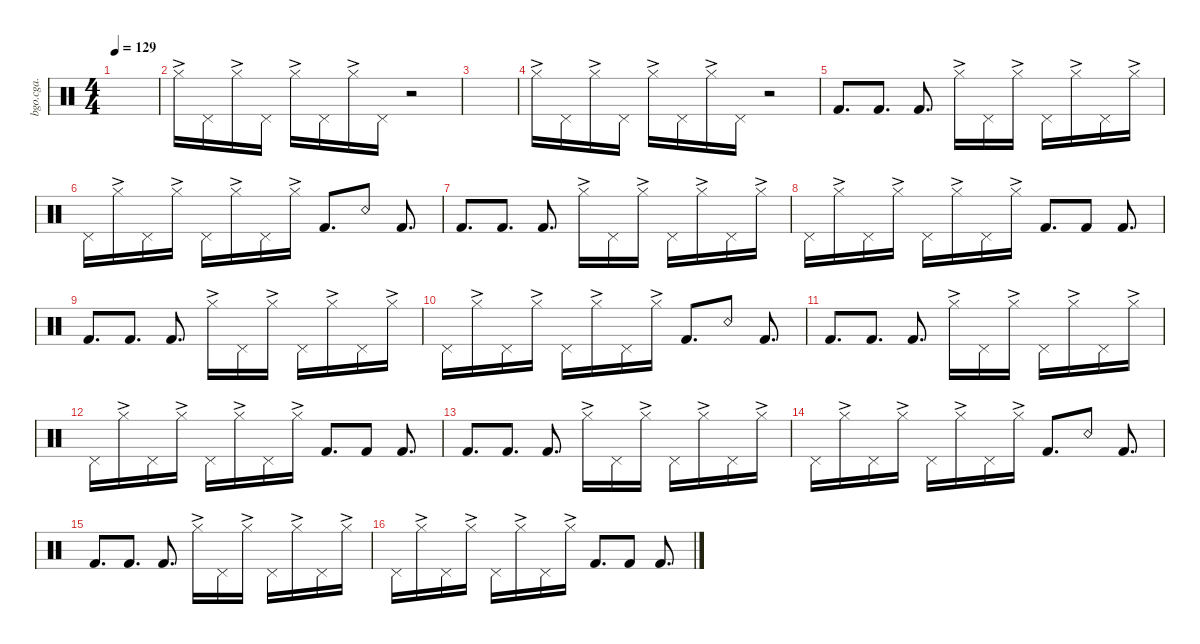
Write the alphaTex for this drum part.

\defaultSystemsLayout 4
\hideDynamics
\bracketExtendMode nobrackets
\otherSystemsTrackNameOrientation horizontal
\track ("Heiko's percussion" "bgo.cga.") {instrument percussion}
\staff {score}
\articulation defaults
\ts (4 4)
\tempo 129
\clef neutral
\ks c
|
"Hi-Hat (closed)"{ac}.16 "Pedal Hi-Hat (hit)".16 "Hi-Hat (closed)"{ac}.16 "Pedal Hi-Hat (hit)".16 "Hi-Hat (closed)"{ac}.16 "Pedal Hi-Hat (hit)".16 "Hi-Hat (closed)"{ac}.16 "Pedal Hi-Hat (hit)".16 r.2 |
|
"Hi-Hat (closed)"{ac}.16 "Pedal Hi-Hat (hit)".16 "Hi-Hat (closed)"{ac}.16 "Pedal Hi-Hat (hit)".16 "Hi-Hat (closed)"{ac}.16 "Pedal Hi-Hat (hit)".16 "Hi-Hat (closed)"{ac}.16 "Pedal Hi-Hat (hit)".16 r.2 |
"Kick (hit) 2".8{d} "Kick (hit) 2".8{d} "Kick (hit) 2".8{d} "Hi-Hat (closed)"{ac}.16 "Pedal Hi-Hat (hit)".16 "Hi-Hat (closed)"{ac}.16 "Pedal Hi-Hat (hit)".16 "Hi-Hat (closed)"{ac}.16 "Pedal Hi-Hat (hit)".16 "Hi-Hat (closed)"{ac}.16 |
"Pedal Hi-Hat (hit)".16 "Hi-Hat (closed)"{ac}.16 "Pedal Hi-Hat (hit)".16 "Hi-Hat (closed)"{ac}.16 "Pedal Hi-Hat (hit)".16 "Hi-Hat (closed)"{ac}.16 "Pedal Hi-Hat (hit)".16 "Hi-Hat (closed)"{ac}.16 "Kick (hit) 2".8{d} "Snare (rim shot)".8 "Kick (hit) 2".8{d} |
"Kick (hit) 2".8{d} "Kick (hit) 2".8{d} "Kick (hit) 2".8{d} "Hi-Hat (closed)"{ac}.16 "Pedal Hi-Hat (hit)".16 "Hi-Hat (closed)"{ac}.16 "Pedal Hi-Hat (hit)".16 "Hi-Hat (closed)"{ac}.16 "Pedal Hi-Hat (hit)".16 "Hi-Hat (closed)"{ac}.16 |
"Pedal Hi-Hat (hit)".16 "Hi-Hat (closed)"{ac}.16 "Pedal Hi-Hat (hit)".16 "Hi-Hat (closed)"{ac}.16 "Pedal Hi-Hat (hit)".16 "Hi-Hat (closed)"{ac}.16 "Pedal Hi-Hat (hit)".16 "Hi-Hat (closed)"{ac}.16 "Kick (hit) 2".8{d} "Kick (hit) 2".8 "Kick (hit) 2".8{d} |
"Kick (hit) 2".8{d} "Kick (hit) 2".8{d} "Kick (hit) 2".8{d} "Hi-Hat (closed)"{ac}.16 "Pedal Hi-Hat (hit)".16 "Hi-Hat (closed)"{ac}.16 "Pedal Hi-Hat (hit)".16 "Hi-Hat (closed)"{ac}.16 "Pedal Hi-Hat (hit)".16 "Hi-Hat (closed)"{ac}.16 |
"Pedal Hi-Hat (hit)".16 "Hi-Hat (closed)"{ac}.16 "Pedal Hi-Hat (hit)".16 "Hi-Hat (closed)"{ac}.16 "Pedal Hi-Hat (hit)".16 "Hi-Hat (closed)"{ac}.16 "Pedal Hi-Hat (hit)".16 "Hi-Hat (closed)"{ac}.16 "Kick (hit) 2".8{d} "Snare (rim shot)".8 "Kick (hit) 2".8{d} |
"Kick (hit) 2".8{d} "Kick (hit) 2".8{d} "Kick (hit) 2".8{d} "Hi-Hat (closed)"{ac}.16 "Pedal Hi-Hat (hit)".16 "Hi-Hat (closed)"{ac}.16 "Pedal Hi-Hat (hit)".16 "Hi-Hat (closed)"{ac}.16 "Pedal Hi-Hat (hit)".16 "Hi-Hat (closed)"{ac}.16 |
"Pedal Hi-Hat (hit)".16 "Hi-Hat (closed)"{ac}.16 "Pedal Hi-Hat (hit)".16 "Hi-Hat (closed)"{ac}.16 "Pedal Hi-Hat (hit)".16 "Hi-Hat (closed)"{ac}.16 "Pedal Hi-Hat (hit)".16 "Hi-Hat (closed)"{ac}.16 "Kick (hit) 2".8{d} "Kick (hit) 2".8 "Kick (hit) 2".8{d} |
"Kick (hit) 2".8{d} "Kick (hit) 2".8{d} "Kick (hit) 2".8{d} "Hi-Hat (closed)"{ac}.16 "Pedal Hi-Hat (hit)".16 "Hi-Hat (closed)"{ac}.16 "Pedal Hi-Hat (hit)".16 "Hi-Hat (closed)"{ac}.16 "Pedal Hi-Hat (hit)".16 "Hi-Hat (closed)"{ac}.16 |
"Pedal Hi-Hat (hit)".16 "Hi-Hat (closed)"{ac}.16 "Pedal Hi-Hat (hit)".16 "Hi-Hat (closed)"{ac}.16 "Pedal Hi-Hat (hit)".16 "Hi-Hat (closed)"{ac}.16 "Pedal Hi-Hat (hit)".16 "Hi-Hat (closed)"{ac}.16 "Kick (hit) 2".8{d} "Snare (rim shot)".8 "Kick (hit) 2".8{d} |
"Kick (hit) 2".8{d} "Kick (hit) 2".8{d} "Kick (hit) 2".8{d} "Hi-Hat (closed)"{ac}.16 "Pedal Hi-Hat (hit)".16 "Hi-Hat (closed)"{ac}.16 "Pedal Hi-Hat (hit)".16 "Hi-Hat (closed)"{ac}.16 "Pedal Hi-Hat (hit)".16 "Hi-Hat (closed)"{ac}.16 |
"Pedal Hi-Hat (hit)".16 "Hi-Hat (closed)"{ac}.16 "Pedal Hi-Hat (hit)".16 "Hi-Hat (closed)"{ac}.16 "Pedal Hi-Hat (hit)".16 "Hi-Hat (closed)"{ac}.16 "Pedal Hi-Hat (hit)".16 "Hi-Hat (closed)"{ac}.16 "Kick (hit) 2".8{d} "Kick (hit) 2".8 "Kick (hit) 2".8{d}
